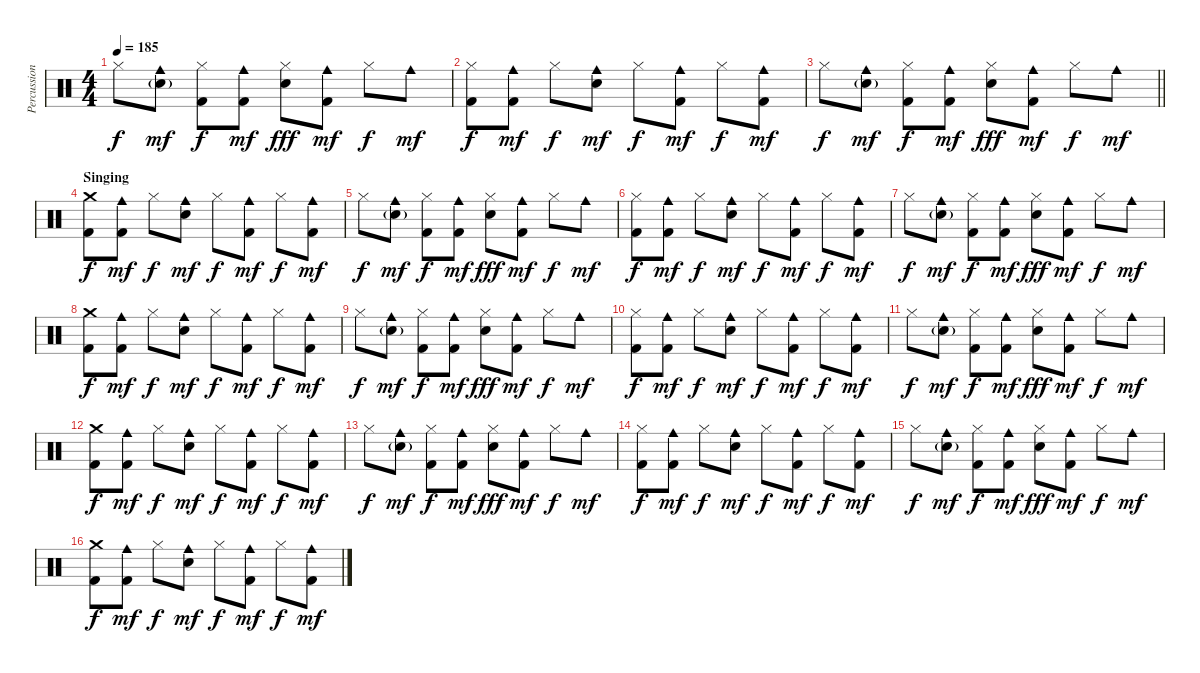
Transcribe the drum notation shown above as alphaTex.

\track ("Percussions" "Percussion") {instrument percussion}
\staff {score}
\articulation defaults
\ts (4 4)
\tempo 185
\clef neutral
\ks c "Hi-Hat (closed)".8{dy f}
("Electric Snare (hit)"{g} "Cowbell medium (hit)").8{dy mf} ("Kick (hit) 2" "Hi-Hat (closed)").8{dy f} ("Kick (hit) 2" "Cowbell medium (hit)").8{dy mf} ("Electric Snare (hit)" "Hi-Hat (closed)").8{dy fff} ("Kick (hit) 2" "Cowbell medium (hit)").8{dy mf} "Hi-Hat (closed)".8{dy f} "Cowbell medium (hit)".8{dy mf} |
("Kick (hit) 2" "Hi-Hat (closed)").8{dy f} ("Kick (hit) 2" "Cowbell medium (hit)").8{dy mf} "Hi-Hat (closed)".8{dy f} ("Electric Snare (hit)" "Cowbell medium (hit)").8{dy mf} "Hi-Hat (closed)".8{dy f} ("Kick (hit) 2" "Cowbell medium (hit)").8{dy mf} "Hi-Hat (closed)".8{dy f} ("Kick (hit) 2" "Cowbell medium (hit)").8{dy mf} |
\barLineRight lightlight "Hi-Hat (closed)".8{dy f}
("Electric Snare (hit)"{g} "Cowbell medium (hit)").8{dy mf} ("Kick (hit) 2" "Hi-Hat (closed)").8{dy f} ("Kick (hit) 2" "Cowbell medium (hit)").8{dy mf} ("Electric Snare (hit)" "Hi-Hat (closed)").8{dy fff} ("Kick (hit) 2" "Cowbell medium (hit)").8{dy mf} "Hi-Hat (closed)".8{dy f} "Cowbell medium (hit)".8{dy mf} |
\section ("" "Singing")
("Crash medium (hit)" "Kick (hit) 2").8{dy f} ("Kick (hit) 2" "Cowbell medium (hit)").8{dy mf} "Hi-Hat (closed)".8{dy f} ("Electric Snare (hit)" "Cowbell medium (hit)").8{dy mf} "Hi-Hat (closed)".8{dy f} ("Kick (hit) 2" "Cowbell medium (hit)").8{dy mf} "Hi-Hat (closed)".8{dy f} ("Kick (hit) 2" "Cowbell medium (hit)").8{dy mf} |
"Hi-Hat (closed)".8{dy f} ("Electric Snare (hit)"{g} "Cowbell medium (hit)").8{dy mf} ("Kick (hit) 2" "Hi-Hat (closed)").8{dy f} ("Kick (hit) 2" "Cowbell medium (hit)").8{dy mf} ("Electric Snare (hit)" "Hi-Hat (closed)").8{dy fff} ("Kick (hit) 2" "Cowbell medium (hit)").8{dy mf} "Hi-Hat (closed)".8{dy f} "Cowbell medium (hit)".8{dy mf} |
("Kick (hit) 2" "Hi-Hat (closed)").8{dy f} ("Kick (hit) 2" "Cowbell medium (hit)").8{dy mf} "Hi-Hat (closed)".8{dy f} ("Electric Snare (hit)" "Cowbell medium (hit)").8{dy mf} "Hi-Hat (closed)".8{dy f} ("Kick (hit) 2" "Cowbell medium (hit)").8{dy mf} "Hi-Hat (closed)".8{dy f} ("Kick (hit) 2" "Cowbell medium (hit)").8{dy mf} |
"Hi-Hat (closed)".8{dy f} ("Electric Snare (hit)"{g} "Cowbell medium (hit)").8{dy mf} ("Kick (hit) 2" "Hi-Hat (closed)").8{dy f} ("Kick (hit) 2" "Cowbell medium (hit)").8{dy mf} ("Electric Snare (hit)" "Hi-Hat (closed)").8{dy fff} ("Kick (hit) 2" "Cowbell medium (hit)").8{dy mf} "Hi-Hat (closed)".8{dy f} "Cowbell medium (hit)".8{dy mf} |
("Crash medium (hit)" "Kick (hit) 2").8{dy f} ("Kick (hit) 2" "Cowbell medium (hit)").8{dy mf} "Hi-Hat (closed)".8{dy f} ("Electric Snare (hit)" "Cowbell medium (hit)").8{dy mf} "Hi-Hat (closed)".8{dy f} ("Kick (hit) 2" "Cowbell medium (hit)").8{dy mf} "Hi-Hat (closed)".8{dy f} ("Kick (hit) 2" "Cowbell medium (hit)").8{dy mf} |
"Hi-Hat (closed)".8{dy f} ("Electric Snare (hit)"{g} "Cowbell medium (hit)").8{dy mf} ("Kick (hit) 2" "Hi-Hat (closed)").8{dy f} ("Kick (hit) 2" "Cowbell medium (hit)").8{dy mf} ("Electric Snare (hit)" "Hi-Hat (closed)").8{dy fff} ("Kick (hit) 2" "Cowbell medium (hit)").8{dy mf} "Hi-Hat (closed)".8{dy f} "Cowbell medium (hit)".8{dy mf} |
("Kick (hit) 2" "Hi-Hat (closed)").8{dy f} ("Kick (hit) 2" "Cowbell medium (hit)").8{dy mf} "Hi-Hat (closed)".8{dy f} ("Electric Snare (hit)" "Cowbell medium (hit)").8{dy mf} "Hi-Hat (closed)".8{dy f} ("Kick (hit) 2" "Cowbell medium (hit)").8{dy mf} "Hi-Hat (closed)".8{dy f} ("Kick (hit) 2" "Cowbell medium (hit)").8{dy mf} |
"Hi-Hat (closed)".8{dy f} ("Electric Snare (hit)"{g} "Cowbell medium (hit)").8{dy mf} ("Kick (hit) 2" "Hi-Hat (closed)").8{dy f} ("Kick (hit) 2" "Cowbell medium (hit)").8{dy mf} ("Electric Snare (hit)" "Hi-Hat (closed)").8{dy fff} ("Kick (hit) 2" "Cowbell medium (hit)").8{dy mf} "Hi-Hat (closed)".8{dy f} "Cowbell medium (hit)".8{dy mf} |
("Crash medium (hit)" "Kick (hit) 2").8{dy f} ("Kick (hit) 2" "Cowbell medium (hit)").8{dy mf} "Hi-Hat (closed)".8{dy f} ("Electric Snare (hit)" "Cowbell medium (hit)").8{dy mf} "Hi-Hat (closed)".8{dy f} ("Kick (hit) 2" "Cowbell medium (hit)").8{dy mf} "Hi-Hat (closed)".8{dy f} ("Kick (hit) 2" "Cowbell medium (hit)").8{dy mf} |
"Hi-Hat (closed)".8{dy f} ("Electric Snare (hit)"{g} "Cowbell medium (hit)").8{dy mf} ("Kick (hit) 2" "Hi-Hat (closed)").8{dy f} ("Kick (hit) 2" "Cowbell medium (hit)").8{dy mf} ("Electric Snare (hit)" "Hi-Hat (closed)").8{dy fff} ("Kick (hit) 2" "Cowbell medium (hit)").8{dy mf} "Hi-Hat (closed)".8{dy f} "Cowbell medium (hit)".8{dy mf} |
("Kick (hit) 2" "Hi-Hat (closed)").8{dy f} ("Kick (hit) 2" "Cowbell medium (hit)").8{dy mf} "Hi-Hat (closed)".8{dy f} ("Electric Snare (hit)" "Cowbell medium (hit)").8{dy mf} "Hi-Hat (closed)".8{dy f} ("Kick (hit) 2" "Cowbell medium (hit)").8{dy mf} "Hi-Hat (closed)".8{dy f} ("Kick (hit) 2" "Cowbell medium (hit)").8{dy mf} |
"Hi-Hat (closed)".8{dy f} ("Electric Snare (hit)"{g} "Cowbell medium (hit)").8{dy mf} ("Kick (hit) 2" "Hi-Hat (closed)").8{dy f} ("Kick (hit) 2" "Cowbell medium (hit)").8{dy mf} ("Electric Snare (hit)" "Hi-Hat (closed)").8{dy fff} ("Kick (hit) 2" "Cowbell medium (hit)").8{dy mf} "Hi-Hat (closed)".8{dy f} "Cowbell medium (hit)".8{dy mf} |
("Crash medium (hit)" "Kick (hit) 2").8{dy f} ("Kick (hit) 2" "Cowbell medium (hit)").8{dy mf} "Hi-Hat (closed)".8{dy f} ("Electric Snare (hit)" "Cowbell medium (hit)").8{dy mf} "Hi-Hat (closed)".8{dy f} ("Kick (hit) 2" "Cowbell medium (hit)").8{dy mf} "Hi-Hat (closed)".8{dy f} ("Kick (hit) 2" "Cowbell medium (hit)").8{dy mf}
